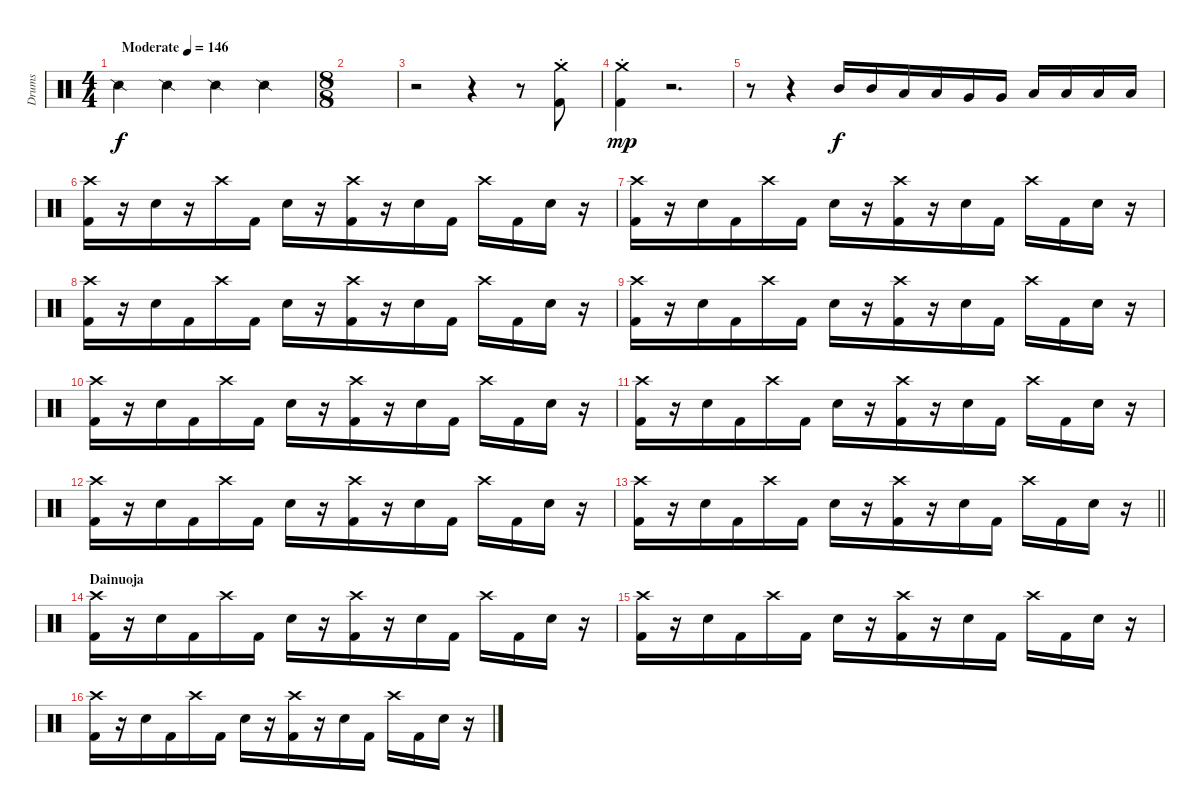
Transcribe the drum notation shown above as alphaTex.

\track ("Drums" "Drums") {instrument percussion}
\staff {score}
\articulation defaults
\ts (4 4)
\tempo (146 "Moderate")
\clef neutral
\ks c "Snare (side stick) 2".4{dy f} "Snare (side stick) 2".4 "Snare (side stick) 2".4 "Snare (side stick) 2".4
|
\ts (8 8)
|
r.2 r.4 r.8 ("Crash medium (hit)"{st} "Kick (hit) 2"{st}).8 |
("Crash medium (hit)"{st} "Kick (hit) 2"{st}).4{dy mp} r.2{d} |
r.8 r.4 "Mid Tom (hit)".16{dy f} "Mid Tom (hit)".16 "Low Tom (hit)".16 "Low Tom (hit)".16 "Very Low Tom (hit)".16 "Very Low Tom (hit)".16 "Low Floor Tom (hit)".16 "Low Floor Tom (hit)".16 "Low Floor Tom (hit)".16 "Low Floor Tom (hit)".16 |
("Crash high (hit)" "Kick (hit) 2").16 r.16 "Snare (hit) 2".16 r.16 "Crash high (hit)".16 "Kick (hit) 2".16 "Snare (hit) 2".16 r.16 ("Crash high (hit)" "Kick (hit) 2").16 r.16 "Snare (hit) 2".16 "Kick (hit) 2".16 "Crash high (hit)".16 "Kick (hit) 2".16 "Snare (hit) 2".16 r.16 |
("Crash high (hit)" "Kick (hit) 2").16 r.16 "Snare (hit) 2".16 "Kick (hit) 2".16 "Crash high (hit)".16 "Kick (hit) 2".16 "Snare (hit) 2".16 r.16 ("Crash high (hit)" "Kick (hit) 2").16 r.16 "Snare (hit) 2".16 "Kick (hit) 2".16 "Crash high (hit)".16 "Kick (hit) 2".16 "Snare (hit) 2".16 r.16 |
("Crash high (hit)" "Kick (hit) 2").16 r.16 "Snare (hit) 2".16 "Kick (hit) 2".16 "Crash high (hit)".16 "Kick (hit) 2".16 "Snare (hit) 2".16 r.16 ("Crash high (hit)" "Kick (hit) 2").16 r.16 "Snare (hit) 2".16 "Kick (hit) 2".16 "Crash high (hit)".16 "Kick (hit) 2".16 "Snare (hit) 2".16 r.16 |
("Crash high (hit)" "Kick (hit) 2").16 r.16 "Snare (hit) 2".16 "Kick (hit) 2".16 "Crash high (hit)".16 "Kick (hit) 2".16 "Snare (hit) 2".16 r.16 ("Crash high (hit)" "Kick (hit) 2").16 r.16 "Snare (hit) 2".16 "Kick (hit) 2".16 "Crash high (hit)".16 "Kick (hit) 2".16 "Snare (hit) 2".16 r.16 |
("Crash high (hit)" "Kick (hit) 2").16 r.16 "Snare (hit) 2".16 "Kick (hit) 2".16 "Crash high (hit)".16 "Kick (hit) 2".16 "Snare (hit) 2".16 r.16 ("Crash high (hit)" "Kick (hit) 2").16 r.16 "Snare (hit) 2".16 "Kick (hit) 2".16 "Crash high (hit)".16 "Kick (hit) 2".16 "Snare (hit) 2".16 r.16 |
("Crash high (hit)" "Kick (hit) 2").16 r.16 "Snare (hit) 2".16 "Kick (hit) 2".16 "Crash high (hit)".16 "Kick (hit) 2".16 "Snare (hit) 2".16 r.16 ("Crash high (hit)" "Kick (hit) 2").16 r.16 "Snare (hit) 2".16 "Kick (hit) 2".16 "Crash high (hit)".16 "Kick (hit) 2".16 "Snare (hit) 2".16 r.16 |
("Crash high (hit)" "Kick (hit) 2").16 r.16 "Snare (hit) 2".16 "Kick (hit) 2".16 "Crash high (hit)".16 "Kick (hit) 2".16 "Snare (hit) 2".16 r.16 ("Crash high (hit)" "Kick (hit) 2").16 r.16 "Snare (hit) 2".16 "Kick (hit) 2".16 "Crash high (hit)".16 "Kick (hit) 2".16 "Snare (hit) 2".16 r.16 |
\barLineRight lightlight
("Crash high (hit)" "Kick (hit) 2").16 r.16 "Snare (hit) 2".16 "Kick (hit) 2".16 "Crash high (hit)".16 "Kick (hit) 2".16 "Snare (hit) 2".16 r.16 ("Crash high (hit)" "Kick (hit) 2").16 r.16 "Snare (hit) 2".16 "Kick (hit) 2".16 "Crash high (hit)".16 "Kick (hit) 2".16 "Snare (hit) 2".16 r.16 |
\section ("" "Dainuoja")
("Crash high (hit)" "Kick (hit) 2").16 r.16 "Snare (hit) 2".16 "Kick (hit) 2".16 "Crash high (hit)".16 "Kick (hit) 2".16 "Snare (hit) 2".16 r.16 ("Crash high (hit)" "Kick (hit) 2").16 r.16 "Snare (hit) 2".16 "Kick (hit) 2".16 "Crash high (hit)".16 "Kick (hit) 2".16 "Snare (hit) 2".16 r.16 |
("Crash high (hit)" "Kick (hit) 2").16 r.16 "Snare (hit) 2".16 "Kick (hit) 2".16 "Crash high (hit)".16 "Kick (hit) 2".16 "Snare (hit) 2".16 r.16 ("Crash high (hit)" "Kick (hit) 2").16 r.16 "Snare (hit) 2".16 "Kick (hit) 2".16 "Crash high (hit)".16 "Kick (hit) 2".16 "Snare (hit) 2".16 r.16 |
("Crash high (hit)" "Kick (hit) 2").16 r.16 "Snare (hit) 2".16 "Kick (hit) 2".16 "Crash high (hit)".16 "Kick (hit) 2".16 "Snare (hit) 2".16 r.16 ("Crash high (hit)" "Kick (hit) 2").16 r.16 "Snare (hit) 2".16 "Kick (hit) 2".16 "Crash high (hit)".16 "Kick (hit) 2".16 "Snare (hit) 2".16 r.16
